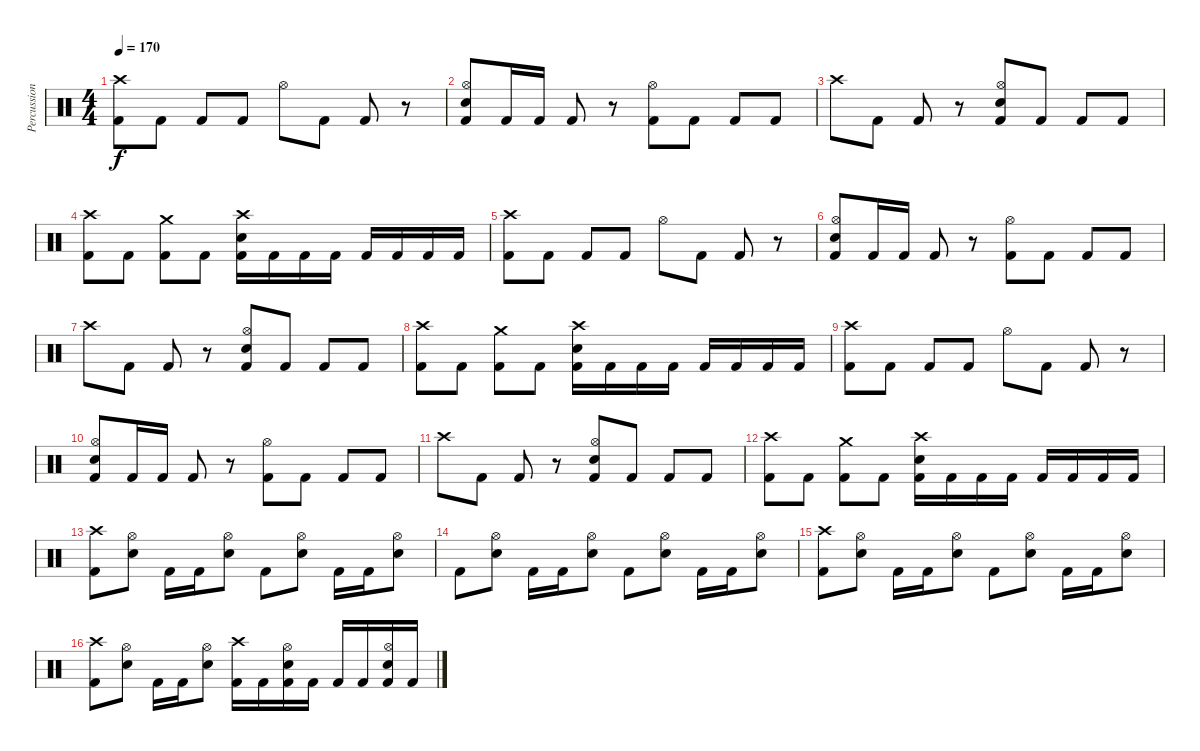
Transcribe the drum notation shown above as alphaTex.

\track ("Percussion" "Percussion") {instrument percussion}
\staff {score}
\articulation defaults
\ts (4 4)
\tempo 170
\clef neutral
\ks c
("Crash high (hit)" "Kick (hit) 2").8{dy f} "Kick (hit) 2".8 "Kick (hit) 2".8 "Kick (hit) 2".8 "Hi-Hat (open)".8 "Kick (hit) 2".8 "Kick (hit) 2".8 r.8 |
("Hi-Hat (open)" "Snare (hit) 2" "Kick (hit) 2").8 "Kick (hit) 2".16 "Kick (hit) 2".16 "Kick (hit) 2".8 r.8 ("Hi-Hat (open)" "Kick (hit) 2").8 "Kick (hit) 2".8 "Kick (hit) 2".8 "Kick (hit) 2".8 |
"Crash high (hit)".8 "Kick (hit) 2".8 "Kick (hit) 2".8 r.8 ("Hi-Hat (open)" "Snare (hit) 2" "Kick (hit) 2").8 "Kick (hit) 2".8 "Kick (hit) 2".8 "Kick (hit) 2".8 |
("Crash high (hit)" "Kick (hit) 2").8 "Kick (hit) 2".8 ("Crash medium (hit)" "Kick (hit) 2").8 "Kick (hit) 2".8 ("Crash high (hit)" "Snare (hit) 2" "Kick (hit) 2").16 "Kick (hit) 2".16 "Kick (hit) 2".16 "Kick (hit) 2".16 "Kick (hit) 2".16 "Kick (hit) 2".16 "Kick (hit) 2".16 "Kick (hit) 2".16 |
("Crash high (hit)" "Kick (hit) 2").8 "Kick (hit) 2".8 "Kick (hit) 2".8 "Kick (hit) 2".8 "Hi-Hat (open)".8 "Kick (hit) 2".8 "Kick (hit) 2".8 r.8 |
("Hi-Hat (open)" "Snare (hit) 2" "Kick (hit) 2").8 "Kick (hit) 2".16 "Kick (hit) 2".16 "Kick (hit) 2".8 r.8 ("Hi-Hat (open)" "Kick (hit) 2").8 "Kick (hit) 2".8 "Kick (hit) 2".8 "Kick (hit) 2".8 |
"Crash high (hit)".8 "Kick (hit) 2".8 "Kick (hit) 2".8 r.8 ("Hi-Hat (open)" "Snare (hit) 2" "Kick (hit) 2").8 "Kick (hit) 2".8 "Kick (hit) 2".8 "Kick (hit) 2".8 |
("Crash high (hit)" "Kick (hit) 2").8 "Kick (hit) 2".8 ("Crash medium (hit)" "Kick (hit) 2").8 "Kick (hit) 2".8 ("Crash high (hit)" "Snare (hit) 2" "Kick (hit) 2").16 "Kick (hit) 2".16 "Kick (hit) 2".16 "Kick (hit) 2".16 "Kick (hit) 2".16 "Kick (hit) 2".16 "Kick (hit) 2".16 "Kick (hit) 2".16 |
("Crash high (hit)" "Kick (hit) 2").8 "Kick (hit) 2".8 "Kick (hit) 2".8 "Kick (hit) 2".8 "Hi-Hat (open)".8 "Kick (hit) 2".8 "Kick (hit) 2".8 r.8 |
("Hi-Hat (open)" "Snare (hit) 2" "Kick (hit) 2").8 "Kick (hit) 2".16 "Kick (hit) 2".16 "Kick (hit) 2".8 r.8 ("Hi-Hat (open)" "Kick (hit) 2").8 "Kick (hit) 2".8 "Kick (hit) 2".8 "Kick (hit) 2".8 |
"Crash high (hit)".8 "Kick (hit) 2".8 "Kick (hit) 2".8 r.8 ("Hi-Hat (open)" "Snare (hit) 2" "Kick (hit) 2").8 "Kick (hit) 2".8 "Kick (hit) 2".8 "Kick (hit) 2".8 |
("Crash high (hit)" "Kick (hit) 2").8 "Kick (hit) 2".8 ("Crash medium (hit)" "Kick (hit) 2").8 "Kick (hit) 2".8 ("Crash high (hit)" "Snare (hit) 2" "Kick (hit) 2").16 "Kick (hit) 2".16 "Kick (hit) 2".16 "Kick (hit) 2".16 "Kick (hit) 2".16 "Kick (hit) 2".16 "Kick (hit) 2".16 "Kick (hit) 2".16 |
("Crash high (hit)" "Kick (hit) 2").8 ("Hi-Hat (open)" "Snare (hit) 2").8 "Kick (hit) 2".16 "Kick (hit) 2".16 ("Hi-Hat (open)" "Snare (hit) 2").8 "Kick (hit) 2".8 ("Hi-Hat (open)" "Snare (hit) 2").8 "Kick (hit) 2".16 "Kick (hit) 2".16 ("Hi-Hat (open)" "Snare (hit) 2").8 |
"Kick (hit) 2".8 ("Hi-Hat (open)" "Snare (hit) 2").8 "Kick (hit) 2".16 "Kick (hit) 2".16 ("Hi-Hat (open)" "Snare (hit) 2").8 "Kick (hit) 2".8 ("Hi-Hat (open)" "Snare (hit) 2").8 "Kick (hit) 2".16 "Kick (hit) 2".16 ("Hi-Hat (open)" "Snare (hit) 2").8 |
("Crash high (hit)" "Kick (hit) 2").8 ("Hi-Hat (open)" "Snare (hit) 2").8 "Kick (hit) 2".16 "Kick (hit) 2".16 ("Hi-Hat (open)" "Snare (hit) 2").8 "Kick (hit) 2".8 ("Hi-Hat (open)" "Snare (hit) 2").8 "Kick (hit) 2".16 "Kick (hit) 2".16 ("Hi-Hat (open)" "Snare (hit) 2").8 |
("Crash high (hit)" "Kick (hit) 2").8 ("Hi-Hat (open)" "Snare (hit) 2").8 "Kick (hit) 2".16 "Kick (hit) 2".16 ("Hi-Hat (open)" "Snare (hit) 2").8 ("Crash high (hit)" "Kick (hit) 2").16 "Kick (hit) 2".16 ("Hi-Hat (open)" "Snare (hit) 2" "Kick (hit) 2").16 "Kick (hit) 2".16 "Kick (hit) 2".16 "Kick (hit) 2".16 ("Hi-Hat (open)" "Snare (hit) 2" "Kick (hit) 2").16 "Kick (hit) 2".16
